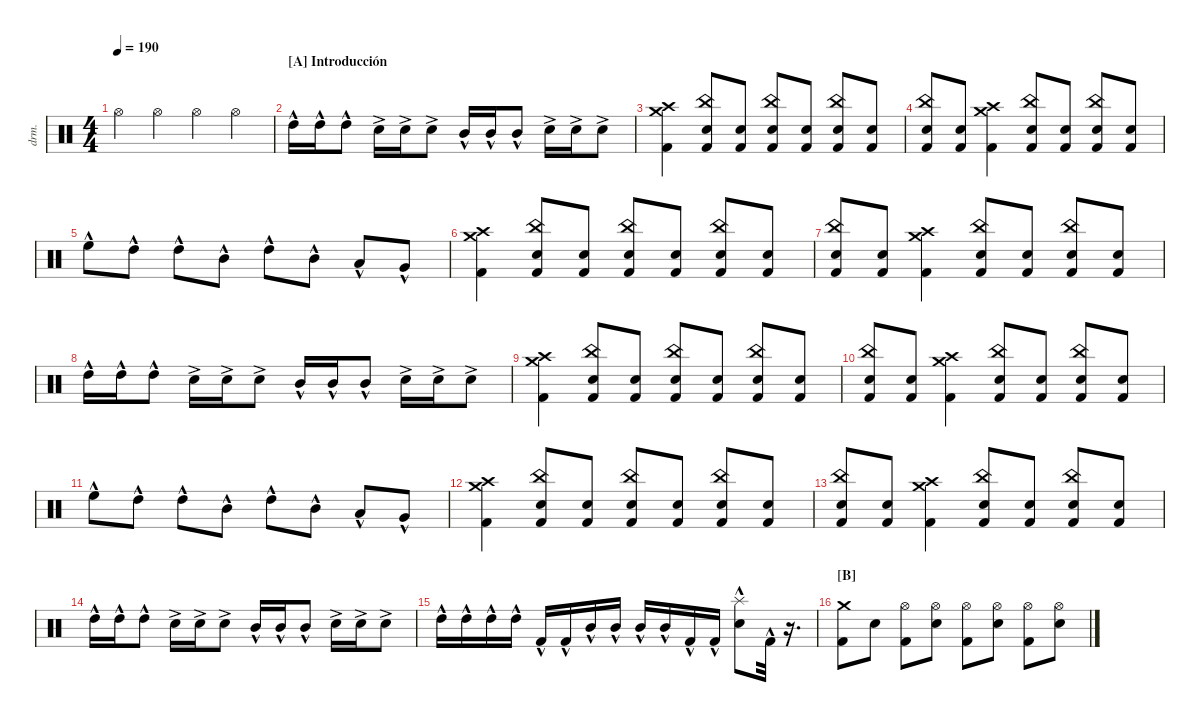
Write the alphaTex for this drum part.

\defaultSystemsLayout 4
\hideDynamics
\bracketExtendMode nobrackets
\otherSystemsTrackNameOrientation horizontal
\track ("Drumkit" "drm.") {instrument percussion}
\staff {score}
\articulation defaults
\ts (4 4)
\tempo 190
\clef neutral
\ks c "Hi-Hat (open)".4{dy mf beam Down} "Hi-Hat (open)".4{beam Down} "Hi-Hat (open)".4{beam Down} "Hi-Hat (open)".4{beam Down}
|
\section ("A" "Introducción")
"High Tom (hit)"{hac}.16{beam Down} "High Tom (hit)"{hac}.16{beam Down} "High Tom (hit)"{hac}.8{beam Down} "Snare (hit) 2"{ac}.16{beam Down} "Snare (hit) 2"{ac}.16{beam Down} "Snare (hit) 2"{ac}.8{beam Down} "Mid Tom (hit)"{hac}.16{beam Up} "Mid Tom (hit)"{hac}.16{beam Up} "Mid Tom (hit)"{hac}.8{beam Up} "Snare (hit) 2"{ac}.16{beam Down} "Snare (hit) 2"{ac}.16{beam Down} "Snare (hit) 2"{ac}.8{beam Down} |
("Kick (hit) 2" "Crash high (hit)" "Crash medium (hit)").4{beam Down} ("Kick (hit) 2" "Snare (hit) 2" "China (hit)").8{beam Up} ("Kick (hit) 2" "Snare (hit) 2").8{beam Up} ("Kick (hit) 2" "Snare (hit) 2" "China (hit)").8{beam Up} ("Kick (hit) 2" "Snare (hit) 2").8{beam Up} ("Kick (hit) 2" "Snare (hit) 2" "China (hit)").8{beam Up} ("Kick (hit) 2" "Snare (hit) 2").8{beam Up} |
("Kick (hit) 2" "Snare (hit) 2" "China (hit)").8{beam Up} ("Kick (hit) 2" "Snare (hit) 2").8{beam Up} ("Kick (hit) 2" "Crash high (hit)" "Crash medium (hit)").4{beam Down} ("Kick (hit) 2" "Snare (hit) 2" "China (hit)").8{beam Up} ("Kick (hit) 2" "Snare (hit) 2").8{beam Up} ("Kick (hit) 2" "Snare (hit) 2" "China (hit)").8{beam Up} ("Kick (hit) 2" "Snare (hit) 2").8{beam Up} |
"High Floor Tom (hit)"{hac}.8{beam Down} "High Tom (hit)"{hac}.8{beam Down} "High Tom (hit)"{hac}.8{beam Down} "Mid Tom (hit)"{hac}.8{beam Down} "High Tom (hit)"{hac}.8{beam Down} "Mid Tom (hit)"{hac}.8{beam Down} "Low Tom (hit)"{hac}.8{beam Up} "Very Low Tom (hit)"{hac}.8{beam Up} |
("Kick (hit) 2" "Crash high (hit)" "Crash medium (hit)").4{beam Down} ("Kick (hit) 2" "Snare (hit) 2" "China (hit)").8{beam Up} ("Kick (hit) 2" "Snare (hit) 2").8{beam Up} ("Kick (hit) 2" "Snare (hit) 2" "China (hit)").8{beam Up} ("Kick (hit) 2" "Snare (hit) 2").8{beam Up} ("Kick (hit) 2" "Snare (hit) 2" "China (hit)").8{beam Up} ("Kick (hit) 2" "Snare (hit) 2").8{beam Up} |
("Kick (hit) 2" "Snare (hit) 2" "China (hit)").8{beam Up} ("Kick (hit) 2" "Snare (hit) 2").8{beam Up} ("Kick (hit) 2" "Crash high (hit)" "Crash medium (hit)").4{beam Down} ("Kick (hit) 2" "Snare (hit) 2" "China (hit)").8{beam Up} ("Kick (hit) 2" "Snare (hit) 2").8{beam Up} ("Kick (hit) 2" "Snare (hit) 2" "China (hit)").8{beam Up} ("Kick (hit) 2" "Snare (hit) 2").8{beam Up} |
"High Tom (hit)"{hac}.16{beam Down} "High Tom (hit)"{hac}.16{beam Down} "High Tom (hit)"{hac}.8{beam Down} "Snare (hit) 2"{ac}.16{beam Down} "Snare (hit) 2"{ac}.16{beam Down} "Snare (hit) 2"{ac}.8{beam Down} "Mid Tom (hit)"{hac}.16{beam Up} "Mid Tom (hit)"{hac}.16{beam Up} "Mid Tom (hit)"{hac}.8{beam Up} "Snare (hit) 2"{ac}.16{beam Down} "Snare (hit) 2"{ac}.16{beam Down} "Snare (hit) 2"{ac}.8{beam Down} |
("Kick (hit) 2" "Crash high (hit)" "Crash medium (hit)").4{beam Down} ("Kick (hit) 2" "Snare (hit) 2" "China (hit)").8{beam Up} ("Kick (hit) 2" "Snare (hit) 2").8{beam Up} ("Kick (hit) 2" "Snare (hit) 2" "China (hit)").8{beam Up} ("Kick (hit) 2" "Snare (hit) 2").8{beam Up} ("Kick (hit) 2" "Snare (hit) 2" "China (hit)").8{beam Up} ("Kick (hit) 2" "Snare (hit) 2").8{beam Up} |
("Kick (hit) 2" "Snare (hit) 2" "China (hit)").8{beam Up} ("Kick (hit) 2" "Snare (hit) 2").8{beam Up} ("Kick (hit) 2" "Crash high (hit)" "Crash medium (hit)").4{beam Down} ("Kick (hit) 2" "Snare (hit) 2" "China (hit)").8{beam Up} ("Kick (hit) 2" "Snare (hit) 2").8{beam Up} ("Kick (hit) 2" "Snare (hit) 2" "China (hit)").8{beam Up} ("Kick (hit) 2" "Snare (hit) 2").8{beam Up} |
"High Floor Tom (hit)"{hac}.8{beam Down} "High Tom (hit)"{hac}.8{beam Down} "High Tom (hit)"{hac}.8{beam Down} "Mid Tom (hit)"{hac}.8{beam Down} "High Tom (hit)"{hac}.8{beam Down} "Mid Tom (hit)"{hac}.8{beam Down} "Low Tom (hit)"{hac}.8{beam Up} "Very Low Tom (hit)"{hac}.8{beam Up} |
("Kick (hit) 2" "Crash high (hit)" "Crash medium (hit)").4{beam Down} ("Kick (hit) 2" "Snare (hit) 2" "China (hit)").8{beam Up} ("Kick (hit) 2" "Snare (hit) 2").8{beam Up} ("Kick (hit) 2" "Snare (hit) 2" "China (hit)").8{beam Up} ("Kick (hit) 2" "Snare (hit) 2").8{beam Up} ("Kick (hit) 2" "Snare (hit) 2" "China (hit)").8{beam Up} ("Kick (hit) 2" "Snare (hit) 2").8{beam Up} |
("Kick (hit) 2" "Snare (hit) 2" "China (hit)").8{beam Up} ("Kick (hit) 2" "Snare (hit) 2").8{beam Up} ("Kick (hit) 2" "Crash high (hit)" "Crash medium (hit)").4{beam Down} ("Kick (hit) 2" "Snare (hit) 2" "China (hit)").8{beam Up} ("Kick (hit) 2" "Snare (hit) 2").8{beam Up} ("Kick (hit) 2" "Snare (hit) 2" "China (hit)").8{beam Up} ("Kick (hit) 2" "Snare (hit) 2").8{beam Up} |
"High Tom (hit)"{hac}.16{beam Down} "High Tom (hit)"{hac}.16{beam Down} "High Tom (hit)"{hac}.8{beam Down} "Snare (hit) 2"{ac}.16{beam Down} "Snare (hit) 2"{ac}.16{beam Down} "Snare (hit) 2"{ac}.8{beam Down} "Mid Tom (hit)"{hac}.16{beam Up} "Mid Tom (hit)"{hac}.16{beam Up} "Mid Tom (hit)"{hac}.8{beam Up} "Snare (hit) 2"{ac}.16{beam Down} "Snare (hit) 2"{ac}.16{beam Down} "Snare (hit) 2"{ac}.8{beam Down} |
"High Tom (hit)"{hac}.16{beam Down} "High Tom (hit)"{hac}.16{beam Down} "High Tom (hit)"{hac}.16{beam Down} "High Tom (hit)"{hac}.16{beam Down} "Kick (hit) 2"{hac}.16{beam Up} "Kick (hit) 2"{hac}.16{beam Up} "Mid Tom (hit)"{hac}.16{beam Up} "Mid Tom (hit)"{hac}.16{beam Up} "Mid Tom (hit)"{hac}.16{beam Up} "Mid Tom (hit)"{hac}.16{beam Up} "Kick (hit) 2"{hac}.16{beam Up} "Kick (hit) 2"{hac}.16{beam Up} ("Snare (hit) 2"{hac} "Splash (hit)"{hac}).8{beam Down} "Kick (hit) 2"{hac}.32{beam Down} r.16{d beam Down} |
\section ("B" "")
("Crash medium (hit)" "Kick (hit) 2").8{beam Down} "Snare (hit) 2".8{beam Down} ("Kick (hit) 2" "Hi-Hat (open)").8{beam Down} ("Snare (hit) 2" "Hi-Hat (open)").8{beam Down} ("Kick (hit) 2" "Hi-Hat (open)").8{beam Down} ("Snare (hit) 2" "Hi-Hat (open)").8{beam Down} ("Kick (hit) 2" "Hi-Hat (open)").8{beam Down} ("Snare (hit) 2" "Hi-Hat (open)").8{beam Down}
